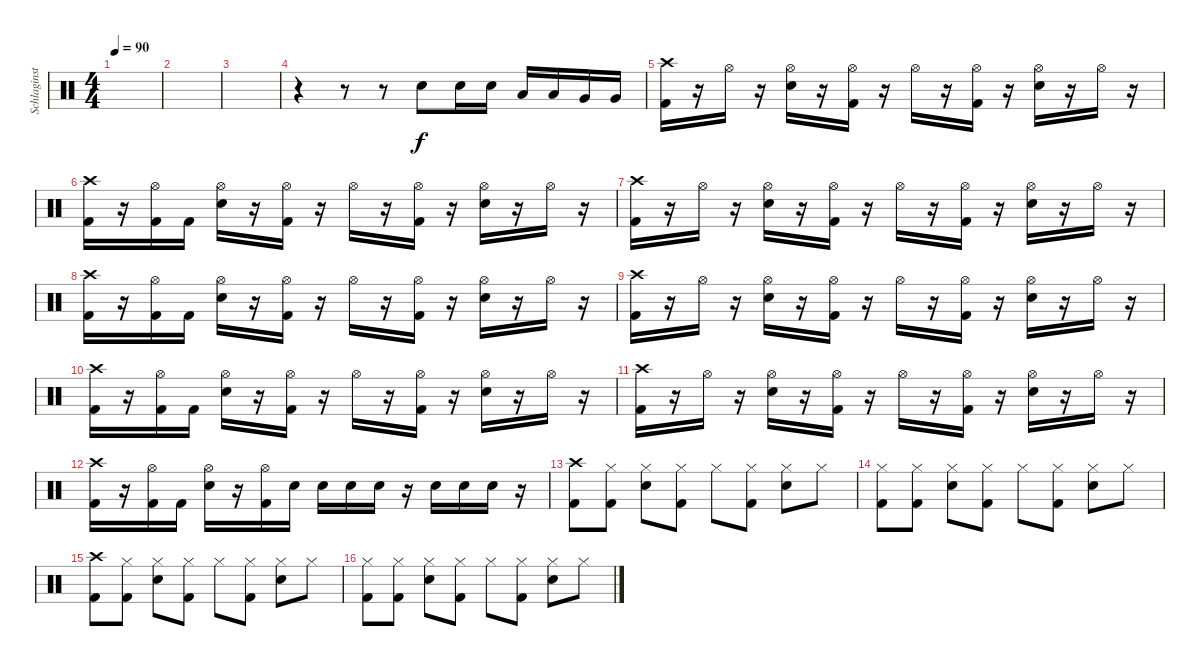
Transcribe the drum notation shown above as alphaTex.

\track ("Schlaginstrumente - Auswahl" "Schlaginst") {instrument percussion}
\staff {score}
\articulation defaults
\ts (4 4)
\tempo 90
\clef neutral
\ks c
|
|
|
r.4 r.8 r.8 "Snare (hit) 2".8 "Snare (hit) 2".16 "Snare (hit) 2".16 "Low Tom (hit)".16 "Low Tom (hit)".16 "Very Low Tom (hit)".16 "Very Low Tom (hit)".16 |
("Crash high (hit)" "Kick (hit) 2").16 r.16 "Hi-Hat (open)".16 r.16 ("Hi-Hat (open)" "Snare (hit) 2").16 r.16 ("Hi-Hat (open)" "Kick (hit) 2").16 r.16 "Hi-Hat (open)".16 r.16 ("Hi-Hat (open)" "Kick (hit) 2").16 r.16 ("Hi-Hat (open)" "Snare (hit) 2").16 r.16 "Hi-Hat (open)".16 r.16 |
("Crash high (hit)" "Kick (hit) 2").16 r.16 ("Hi-Hat (open)" "Kick (hit) 2").16 "Kick (hit) 2".16 ("Hi-Hat (open)" "Snare (hit) 2").16 r.16 ("Hi-Hat (open)" "Kick (hit) 2").16 r.16 "Hi-Hat (open)".16 r.16 ("Hi-Hat (open)" "Kick (hit) 2").16 r.16 ("Hi-Hat (open)" "Snare (hit) 2").16 r.16 "Hi-Hat (open)".16 r.16 |
("Crash high (hit)" "Kick (hit) 2").16 r.16 "Hi-Hat (open)".16 r.16 ("Hi-Hat (open)" "Snare (hit) 2").16 r.16 ("Hi-Hat (open)" "Kick (hit) 2").16 r.16 "Hi-Hat (open)".16 r.16 ("Hi-Hat (open)" "Kick (hit) 2").16 r.16 ("Hi-Hat (open)" "Snare (hit) 2").16 r.16 "Hi-Hat (open)".16 r.16 |
("Crash high (hit)" "Kick (hit) 2").16 r.16 ("Hi-Hat (open)" "Kick (hit) 2").16 "Kick (hit) 2".16 ("Hi-Hat (open)" "Snare (hit) 2").16 r.16 ("Hi-Hat (open)" "Kick (hit) 2").16 r.16 "Hi-Hat (open)".16 r.16 ("Hi-Hat (open)" "Kick (hit) 2").16 r.16 ("Hi-Hat (open)" "Snare (hit) 2").16 r.16 "Hi-Hat (open)".16 r.16 |
("Crash high (hit)" "Kick (hit) 2").16 r.16 "Hi-Hat (open)".16 r.16 ("Hi-Hat (open)" "Snare (hit) 2").16 r.16 ("Hi-Hat (open)" "Kick (hit) 2").16 r.16 "Hi-Hat (open)".16 r.16 ("Hi-Hat (open)" "Kick (hit) 2").16 r.16 ("Hi-Hat (open)" "Snare (hit) 2").16 r.16 "Hi-Hat (open)".16 r.16 |
("Crash high (hit)" "Kick (hit) 2").16 r.16 ("Hi-Hat (open)" "Kick (hit) 2").16 "Kick (hit) 2".16 ("Hi-Hat (open)" "Snare (hit) 2").16 r.16 ("Hi-Hat (open)" "Kick (hit) 2").16 r.16 "Hi-Hat (open)".16 r.16 ("Hi-Hat (open)" "Kick (hit) 2").16 r.16 ("Hi-Hat (open)" "Snare (hit) 2").16 r.16 "Hi-Hat (open)".16 r.16 |
("Crash high (hit)" "Kick (hit) 2").16 r.16 "Hi-Hat (open)".16 r.16 ("Hi-Hat (open)" "Snare (hit) 2").16 r.16 ("Hi-Hat (open)" "Kick (hit) 2").16 r.16 "Hi-Hat (open)".16 r.16 ("Hi-Hat (open)" "Kick (hit) 2").16 r.16 ("Hi-Hat (open)" "Snare (hit) 2").16 r.16 "Hi-Hat (open)".16 r.16 |
("Crash high (hit)" "Kick (hit) 2").16 r.16 ("Hi-Hat (open)" "Kick (hit) 2").16 "Kick (hit) 2".16 ("Hi-Hat (open)" "Snare (hit) 2").16 r.16 ("Hi-Hat (open)" "Kick (hit) 2").16 "Snare (hit) 2".16 "Snare (hit) 2".16 "Snare (hit) 2".16 "Snare (hit) 2".16 r.16 "Snare (hit) 2".16 "Snare (hit) 2".16 "Snare (hit) 2".16 r.16 |
("Crash high (hit)" "Kick (hit) 2").8 ("Hi-Hat (closed)" "Kick (hit) 2").8 ("Hi-Hat (closed)" "Snare (hit) 2").8 ("Hi-Hat (closed)" "Kick (hit) 2").8 "Hi-Hat (closed)".8 ("Hi-Hat (closed)" "Kick (hit) 2").8 ("Hi-Hat (closed)" "Snare (hit) 2").8 "Hi-Hat (closed)".8 |
("Hi-Hat (closed)" "Kick (hit) 2").8 ("Hi-Hat (closed)" "Kick (hit) 2").8 ("Hi-Hat (closed)" "Snare (hit) 2").8 ("Hi-Hat (closed)" "Kick (hit) 2").8 "Hi-Hat (closed)".8 ("Hi-Hat (closed)" "Kick (hit) 2").8 ("Hi-Hat (closed)" "Snare (hit) 2").8 "Hi-Hat (closed)".8 |
("Crash high (hit)" "Kick (hit) 2").8 ("Hi-Hat (closed)" "Kick (hit) 2").8 ("Hi-Hat (closed)" "Snare (hit) 2").8 ("Hi-Hat (closed)" "Kick (hit) 2").8 "Hi-Hat (closed)".8 ("Hi-Hat (closed)" "Kick (hit) 2").8 ("Hi-Hat (closed)" "Snare (hit) 2").8 "Hi-Hat (closed)".8 |
("Hi-Hat (closed)" "Kick (hit) 2").8 ("Hi-Hat (closed)" "Kick (hit) 2").8 ("Hi-Hat (closed)" "Snare (hit) 2").8 ("Hi-Hat (closed)" "Kick (hit) 2").8 "Hi-Hat (closed)".8 ("Hi-Hat (closed)" "Kick (hit) 2").8 ("Hi-Hat (closed)" "Snare (hit) 2").8 "Hi-Hat (closed)".8
